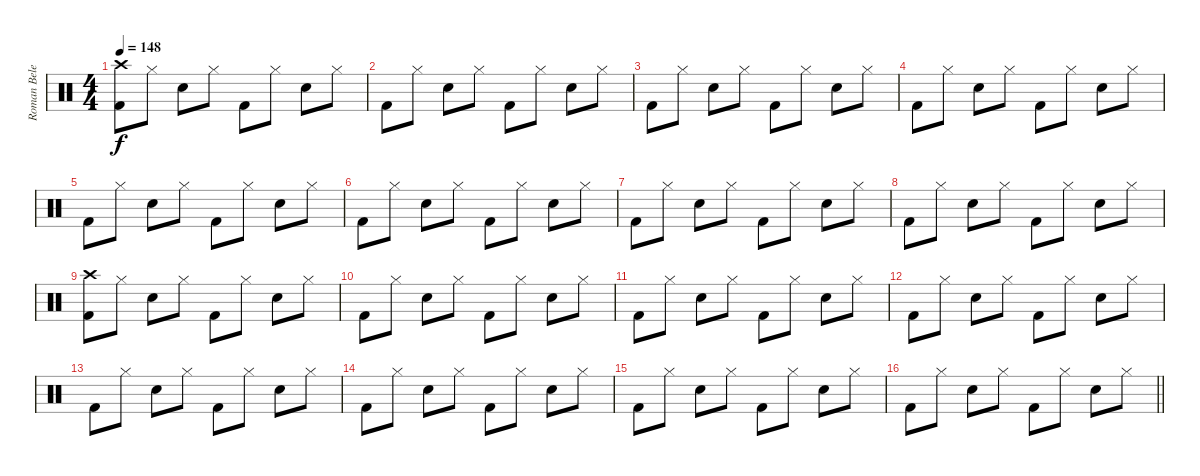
\track ("Roman Belenkiy" "Roman Bele") {instrument percussion}
\staff {score}
\articulation defaults
\ts (4 4)
\section ("" "")
\tempo 148
\clef neutral
\ks c
("Crash high (hit)" "Kick (hit) 2").8{dy f} "Hi-Hat (closed)".8 "Snare (hit) 2".8 "Hi-Hat (closed)".8 "Kick (hit) 2".8 "Hi-Hat (closed)".8 "Snare (hit) 2".8 "Hi-Hat (closed)".8 |
"Kick (hit) 2".8 "Hi-Hat (closed)".8 "Snare (hit) 2".8 "Hi-Hat (closed)".8 "Kick (hit) 2".8 "Hi-Hat (closed)".8 "Snare (hit) 2".8 "Hi-Hat (closed)".8 |
"Kick (hit) 2".8 "Hi-Hat (closed)".8 "Snare (hit) 2".8 "Hi-Hat (closed)".8 "Kick (hit) 2".8 "Hi-Hat (closed)".8 "Snare (hit) 2".8 "Hi-Hat (closed)".8 |
"Kick (hit) 2".8 "Hi-Hat (closed)".8 "Snare (hit) 2".8 "Hi-Hat (closed)".8 "Kick (hit) 2".8 "Hi-Hat (closed)".8 "Snare (hit) 2".8 "Hi-Hat (closed)".8 |
"Kick (hit) 2".8 "Hi-Hat (closed)".8 "Snare (hit) 2".8 "Hi-Hat (closed)".8 "Kick (hit) 2".8 "Hi-Hat (closed)".8 "Snare (hit) 2".8 "Hi-Hat (closed)".8 |
"Kick (hit) 2".8 "Hi-Hat (closed)".8 "Snare (hit) 2".8 "Hi-Hat (closed)".8 "Kick (hit) 2".8 "Hi-Hat (closed)".8 "Snare (hit) 2".8 "Hi-Hat (closed)".8 |
"Kick (hit) 2".8 "Hi-Hat (closed)".8 "Snare (hit) 2".8 "Hi-Hat (closed)".8 "Kick (hit) 2".8 "Hi-Hat (closed)".8 "Snare (hit) 2".8 "Hi-Hat (closed)".8 |
"Kick (hit) 2".8 "Hi-Hat (closed)".8 "Snare (hit) 2".8 "Hi-Hat (closed)".8 "Kick (hit) 2".8 "Hi-Hat (closed)".8 "Snare (hit) 2".8 "Hi-Hat (closed)".8 |
("Crash high (hit)" "Kick (hit) 2").8 "Hi-Hat (closed)".8 "Snare (hit) 2".8 "Hi-Hat (closed)".8 "Kick (hit) 2".8 "Hi-Hat (closed)".8 "Snare (hit) 2".8 "Hi-Hat (closed)".8 |
"Kick (hit) 2".8 "Hi-Hat (closed)".8 "Snare (hit) 2".8 "Hi-Hat (closed)".8 "Kick (hit) 2".8 "Hi-Hat (closed)".8 "Snare (hit) 2".8 "Hi-Hat (closed)".8 |
"Kick (hit) 2".8 "Hi-Hat (closed)".8 "Snare (hit) 2".8 "Hi-Hat (closed)".8 "Kick (hit) 2".8 "Hi-Hat (closed)".8 "Snare (hit) 2".8 "Hi-Hat (closed)".8 |
"Kick (hit) 2".8 "Hi-Hat (closed)".8 "Snare (hit) 2".8 "Hi-Hat (closed)".8 "Kick (hit) 2".8 "Hi-Hat (closed)".8 "Snare (hit) 2".8 "Hi-Hat (closed)".8 |
"Kick (hit) 2".8 "Hi-Hat (closed)".8 "Snare (hit) 2".8 "Hi-Hat (closed)".8 "Kick (hit) 2".8 "Hi-Hat (closed)".8 "Snare (hit) 2".8 "Hi-Hat (closed)".8 |
"Kick (hit) 2".8 "Hi-Hat (closed)".8 "Snare (hit) 2".8 "Hi-Hat (closed)".8 "Kick (hit) 2".8 "Hi-Hat (closed)".8 "Snare (hit) 2".8 "Hi-Hat (closed)".8 |
"Kick (hit) 2".8 "Hi-Hat (closed)".8 "Snare (hit) 2".8 "Hi-Hat (closed)".8 "Kick (hit) 2".8 "Hi-Hat (closed)".8 "Snare (hit) 2".8 "Hi-Hat (closed)".8 |
\barLineRight lightlight "Kick (hit) 2".8 "Hi-Hat (closed)".8 "Snare (hit) 2".8 "Hi-Hat (closed)".8 "Kick (hit) 2".8 "Hi-Hat (closed)".8 "Snare (hit) 2".8 "Hi-Hat (closed)".8
